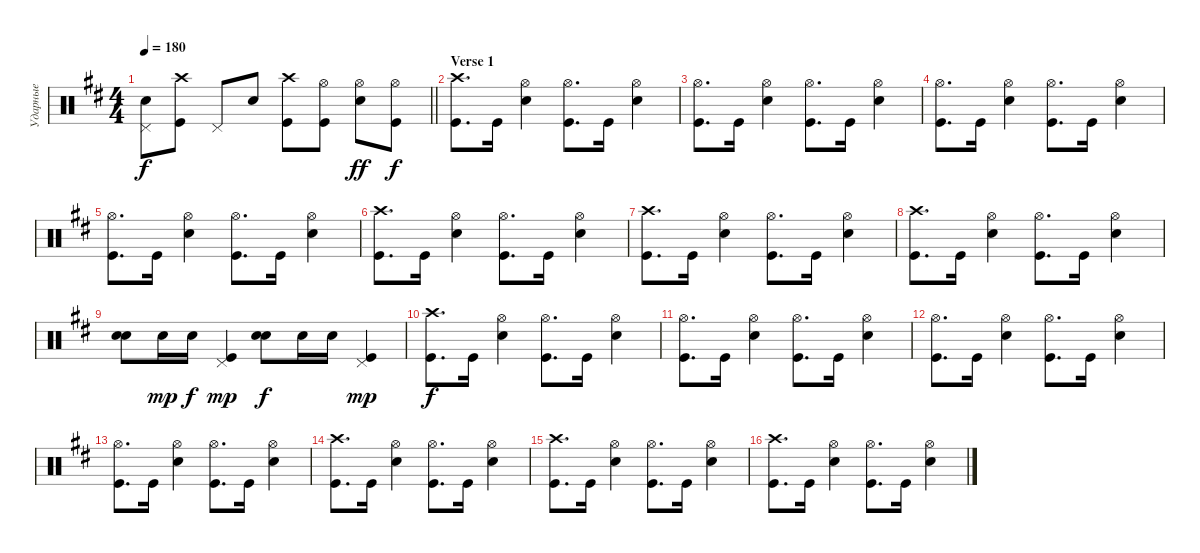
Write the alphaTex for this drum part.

\track ("Ударные" "Ударные") {instrument percussion}
\staff {score}
\articulation defaults
\ts (4 4)
\tempo 180
\clef neutral
\barLineRight lightlight
\ks bminor
("Snare (hit) 2" "Pedal Hi-Hat (hit)").8{dy f} ("Kick (hit)" "Crash high (hit)").8 "Pedal Hi-Hat (hit)".8 "Snare (hit) 2".8 ("Kick (hit)" "Crash high (hit)").8 ("Kick (hit)" "Hi-Hat (open)").8 ("Snare (hit) 2" "Hi-Hat (open)").8{dy ff} ("Kick (hit)" "Hi-Hat (open)").8{dy f} |
\section ("" "Verse 1")
("Kick (hit)" "Crash high (hit)").8{d} "Kick (hit)".16 ("Hi-Hat (open)" "Snare (hit) 2").4 ("Kick (hit)" "Hi-Hat (open)").8{d} "Kick (hit)".16 ("Snare (hit) 2" "Hi-Hat (open)").4 |
("Hi-Hat (open)" "Kick (hit)").8{d} "Kick (hit)".16 ("Hi-Hat (open)" "Snare (hit) 2").4 ("Kick (hit)" "Hi-Hat (open)").8{d} "Kick (hit)".16 ("Snare (hit) 2" "Hi-Hat (open)").4 |
("Hi-Hat (open)" "Kick (hit)").8{d} "Kick (hit)".16 ("Hi-Hat (open)" "Snare (hit) 2").4 ("Kick (hit)" "Hi-Hat (open)").8{d} "Kick (hit)".16 ("Snare (hit) 2" "Hi-Hat (open)").4 |
("Hi-Hat (open)" "Kick (hit)").8{d} "Kick (hit)".16 ("Hi-Hat (open)" "Snare (hit) 2").4 ("Kick (hit)" "Hi-Hat (open)").8{d} "Kick (hit)".16 ("Snare (hit) 2" "Hi-Hat (open)").4 |
("Crash high (hit)" "Kick (hit)").8{d} "Kick (hit)".16 ("Hi-Hat (open)" "Snare (hit) 2").4 ("Kick (hit)" "Hi-Hat (open)").8{d} "Kick (hit)".16 ("Snare (hit) 2" "Hi-Hat (open)").4 |
("Crash high (hit)" "Kick (hit)").8{d} "Kick (hit)".16 ("Hi-Hat (open)" "Snare (hit) 2").4 ("Kick (hit)" "Hi-Hat (open)").8{d} "Kick (hit)".16 ("Snare (hit) 2" "Hi-Hat (open)").4 |
("Crash high (hit)" "Kick (hit)").8{d} "Kick (hit)".16 ("Hi-Hat (open)" "Snare (hit) 2").4 ("Kick (hit)" "Hi-Hat (open)").8{d} "Kick (hit)".16 ("Snare (hit) 2" "Hi-Hat (open)").4 |
("Snare (hit) 2" "Snare (hit) 2").8{bd 240} "Snare (hit) 2".16{dy mp} "Snare (hit) 2".16{dy f} ("Kick (hit)" "Pedal Hi-Hat (hit)").4{dy mp} ("Snare (hit) 2" "Snare (hit) 2").8{bd 240 dy f} "Snare (hit) 2".16 "Snare (hit) 2".16 ("Kick (hit)" "Pedal Hi-Hat (hit)").4{dy mp} |
("Crash high (hit)" "Kick (hit)").8{d dy f} "Kick (hit)".16 ("Hi-Hat (open)" "Snare (hit) 2").4 ("Kick (hit)" "Hi-Hat (open)").8{d} "Kick (hit)".16 ("Snare (hit) 2" "Hi-Hat (open)").4 |
("Hi-Hat (open)" "Kick (hit)").8{d} "Kick (hit)".16 ("Hi-Hat (open)" "Snare (hit) 2").4 ("Kick (hit)" "Hi-Hat (open)").8{d} "Kick (hit)".16 ("Snare (hit) 2" "Hi-Hat (open)").4 |
("Hi-Hat (open)" "Kick (hit)").8{d} "Kick (hit)".16 ("Hi-Hat (open)" "Snare (hit) 2").4 ("Kick (hit)" "Hi-Hat (open)").8{d} "Kick (hit)".16 ("Snare (hit) 2" "Hi-Hat (open)").4 |
("Hi-Hat (open)" "Kick (hit)").8{d} "Kick (hit)".16 ("Hi-Hat (open)" "Snare (hit) 2").4 ("Kick (hit)" "Hi-Hat (open)").8{d} "Kick (hit)".16 ("Snare (hit) 2" "Hi-Hat (open)").4 |
("Crash high (hit)" "Kick (hit)").8{d} "Kick (hit)".16 ("Hi-Hat (open)" "Snare (hit) 2").4 ("Kick (hit)" "Hi-Hat (open)").8{d} "Kick (hit)".16 ("Snare (hit) 2" "Hi-Hat (open)").4 |
("Crash high (hit)" "Kick (hit)").8{d} "Kick (hit)".16 ("Hi-Hat (open)" "Snare (hit) 2").4 ("Kick (hit)" "Hi-Hat (open)").8{d} "Kick (hit)".16 ("Snare (hit) 2" "Hi-Hat (open)").4 |
("Crash high (hit)" "Kick (hit)").8{d} "Kick (hit)".16 ("Hi-Hat (open)" "Snare (hit) 2").4 ("Kick (hit)" "Hi-Hat (open)").8{d} "Kick (hit)".16 ("Snare (hit) 2" "Hi-Hat (open)").4
